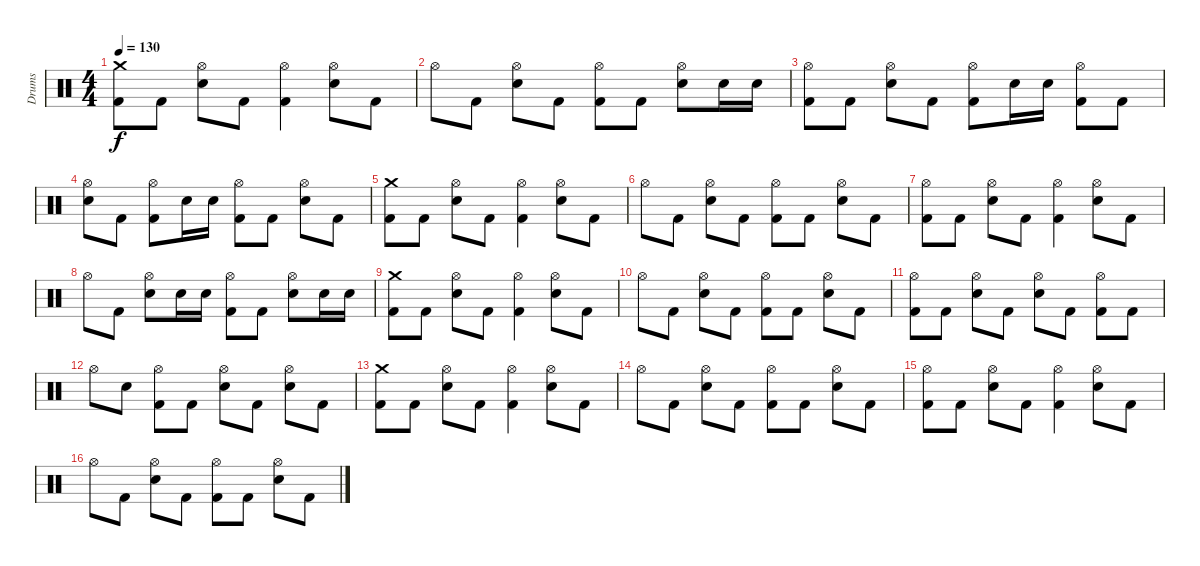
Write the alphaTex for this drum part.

\track ("Drums" "Drums") {instrument percussion}
\staff {score}
\articulation defaults
\ts (4 4)
\tempo 130
\clef neutral
\ks c
("Crash medium (hit)" "Kick (hit) 2").8{dy f} "Kick (hit) 2".8 ("Hi-Hat (open)" "Electric Snare (hit)").8 "Kick (hit) 2".8 ("Hi-Hat (open)" "Kick (hit) 2").4 ("Hi-Hat (open)" "Electric Snare (hit)").8 "Kick (hit) 2".8 |
"Hi-Hat (open)".8 "Kick (hit) 2".8 ("Hi-Hat (open)" "Electric Snare (hit)").8 "Kick (hit) 2".8 ("Hi-Hat (open)" "Kick (hit) 2").8 "Kick (hit) 2".8 ("Hi-Hat (open)" "Electric Snare (hit)").8 "Electric Snare (hit)".16 "Electric Snare (hit)".16 |
("Hi-Hat (open)" "Kick (hit) 2").8 "Kick (hit) 2".8 ("Hi-Hat (open)" "Electric Snare (hit)").8 "Kick (hit) 2".8 ("Hi-Hat (open)" "Kick (hit) 2").8 "Electric Snare (hit)".16 "Electric Snare (hit)".16 ("Hi-Hat (open)" "Kick (hit) 2").8 "Kick (hit) 2".8 |
("Hi-Hat (open)" "Electric Snare (hit)").8 "Kick (hit) 2".8 ("Hi-Hat (open)" "Kick (hit) 2").8 "Electric Snare (hit)".16 "Electric Snare (hit)".16 ("Hi-Hat (open)" "Kick (hit) 2").8 "Kick (hit) 2".8 ("Hi-Hat (open)" "Electric Snare (hit)").8 "Kick (hit) 2".8 |
("Crash medium (hit)" "Kick (hit) 2").8 "Kick (hit) 2".8 ("Hi-Hat (open)" "Electric Snare (hit)").8 "Kick (hit) 2".8 ("Hi-Hat (open)" "Kick (hit) 2").4 ("Hi-Hat (open)" "Electric Snare (hit)").8 "Kick (hit) 2".8 |
"Hi-Hat (open)".8 "Kick (hit) 2".8 ("Hi-Hat (open)" "Electric Snare (hit)").8 "Kick (hit) 2".8 ("Hi-Hat (open)" "Kick (hit) 2").8 "Kick (hit) 2".8 ("Hi-Hat (open)" "Electric Snare (hit)").8 "Kick (hit) 2".8 |
("Hi-Hat (open)" "Kick (hit) 2").8 "Kick (hit) 2".8 ("Hi-Hat (open)" "Electric Snare (hit)").8 "Kick (hit) 2".8 ("Hi-Hat (open)" "Kick (hit) 2").4 ("Hi-Hat (open)" "Electric Snare (hit)").8 "Kick (hit) 2".8 |
"Hi-Hat (open)".8 "Kick (hit) 2".8 ("Hi-Hat (open)" "Electric Snare (hit)").8 "Electric Snare (hit)".16 "Electric Snare (hit)".16 ("Hi-Hat (open)" "Kick (hit) 2").8 "Kick (hit) 2".8 ("Hi-Hat (open)" "Electric Snare (hit)").8 "Electric Snare (hit)".16 "Electric Snare (hit)".16 |
("Crash medium (hit)" "Kick (hit) 2").8 "Kick (hit) 2".8 ("Hi-Hat (open)" "Electric Snare (hit)").8 "Kick (hit) 2".8 ("Hi-Hat (open)" "Kick (hit) 2").4 ("Hi-Hat (open)" "Electric Snare (hit)").8 "Kick (hit) 2".8 |
"Hi-Hat (open)".8 "Kick (hit) 2".8 ("Hi-Hat (open)" "Electric Snare (hit)").8 "Kick (hit) 2".8 ("Hi-Hat (open)" "Kick (hit) 2").8 "Kick (hit) 2".8 ("Hi-Hat (open)" "Electric Snare (hit)").8 "Kick (hit) 2".8 |
("Hi-Hat (open)" "Kick (hit) 2").8 "Kick (hit) 2".8 ("Hi-Hat (open)" "Electric Snare (hit)").8 "Kick (hit) 2".8 ("Hi-Hat (open)" "Electric Snare (hit)").8 "Kick (hit) 2".8 ("Hi-Hat (open)" "Kick (hit) 2").8 "Kick (hit) 2".8 |
"Hi-Hat (open)".8 "Electric Snare (hit)".8 ("Hi-Hat (open)" "Kick (hit) 2").8 "Kick (hit) 2".8 ("Hi-Hat (open)" "Electric Snare (hit)").8 "Kick (hit) 2".8 ("Hi-Hat (open)" "Electric Snare (hit)").8 "Kick (hit) 2".8 |
("Crash medium (hit)" "Kick (hit) 2").8 "Kick (hit) 2".8 ("Hi-Hat (open)" "Electric Snare (hit)").8 "Kick (hit) 2".8 ("Hi-Hat (open)" "Kick (hit) 2").4 ("Hi-Hat (open)" "Electric Snare (hit)").8 "Kick (hit) 2".8 |
"Hi-Hat (open)".8 "Kick (hit) 2".8 ("Hi-Hat (open)" "Electric Snare (hit)").8 "Kick (hit) 2".8 ("Hi-Hat (open)" "Kick (hit) 2").8 "Kick (hit) 2".8 ("Hi-Hat (open)" "Electric Snare (hit)").8 "Kick (hit) 2".8 |
("Hi-Hat (open)" "Kick (hit) 2").8 "Kick (hit) 2".8 ("Hi-Hat (open)" "Electric Snare (hit)").8 "Kick (hit) 2".8 ("Hi-Hat (open)" "Kick (hit) 2").4 ("Hi-Hat (open)" "Electric Snare (hit)").8 "Kick (hit) 2".8 |
"Hi-Hat (open)".8 "Kick (hit) 2".8 ("Hi-Hat (open)" "Electric Snare (hit)").8 "Kick (hit) 2".8 ("Hi-Hat (open)" "Kick (hit) 2").8 "Kick (hit) 2".8 ("Hi-Hat (open)" "Electric Snare (hit)").8 "Kick (hit) 2".8
